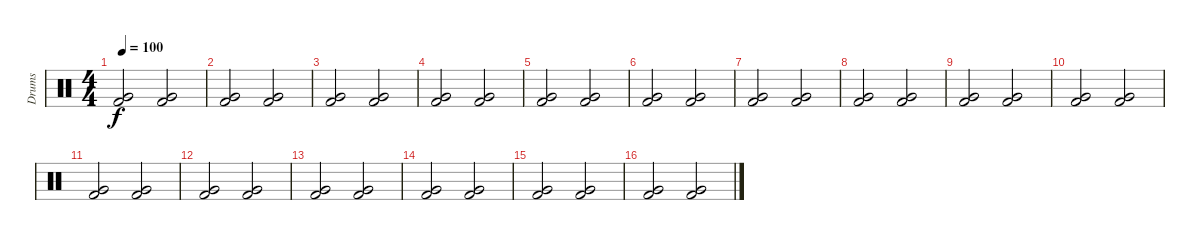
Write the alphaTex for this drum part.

\track ("Drums" "Drums") {instrument percussion}
\staff {score}
\articulation defaults
\ts (4 4)
\tempo 100
\clef neutral
\ks c
("Kick (hit) 2" "Very Low Tom (hit)").2{dy f} ("Kick (hit) 2" "Very Low Tom (hit)").2 |
("Kick (hit) 2" "Very Low Tom (hit)").2 ("Kick (hit) 2" "Very Low Tom (hit)").2 |
("Kick (hit) 2" "Very Low Tom (hit)").2 ("Kick (hit) 2" "Very Low Tom (hit)").2 |
("Kick (hit) 2" "Very Low Tom (hit)").2 ("Kick (hit) 2" "Very Low Tom (hit)").2 |
("Kick (hit) 2" "Very Low Tom (hit)").2 ("Kick (hit) 2" "Very Low Tom (hit)").2 |
("Kick (hit) 2" "Very Low Tom (hit)").2 ("Kick (hit) 2" "Very Low Tom (hit)").2 |
("Kick (hit) 2" "Very Low Tom (hit)").2 ("Kick (hit) 2" "Very Low Tom (hit)").2 |
("Kick (hit) 2" "Very Low Tom (hit)").2 ("Kick (hit) 2" "Very Low Tom (hit)").2 |
("Kick (hit) 2" "Very Low Tom (hit)").2 ("Kick (hit) 2" "Very Low Tom (hit)").2 |
("Kick (hit) 2" "Very Low Tom (hit)").2 ("Kick (hit) 2" "Very Low Tom (hit)").2 |
("Kick (hit) 2" "Very Low Tom (hit)").2 ("Kick (hit) 2" "Very Low Tom (hit)").2 |
("Kick (hit) 2" "Very Low Tom (hit)").2 ("Kick (hit) 2" "Very Low Tom (hit)").2 |
("Kick (hit) 2" "Very Low Tom (hit)").2 ("Kick (hit) 2" "Very Low Tom (hit)").2 |
("Kick (hit) 2" "Very Low Tom (hit)").2 ("Kick (hit) 2" "Very Low Tom (hit)").2 |
("Kick (hit) 2" "Very Low Tom (hit)").2 ("Kick (hit) 2" "Very Low Tom (hit)").2 |
("Kick (hit) 2" "Very Low Tom (hit)").2 ("Kick (hit) 2" "Very Low Tom (hit)").2
